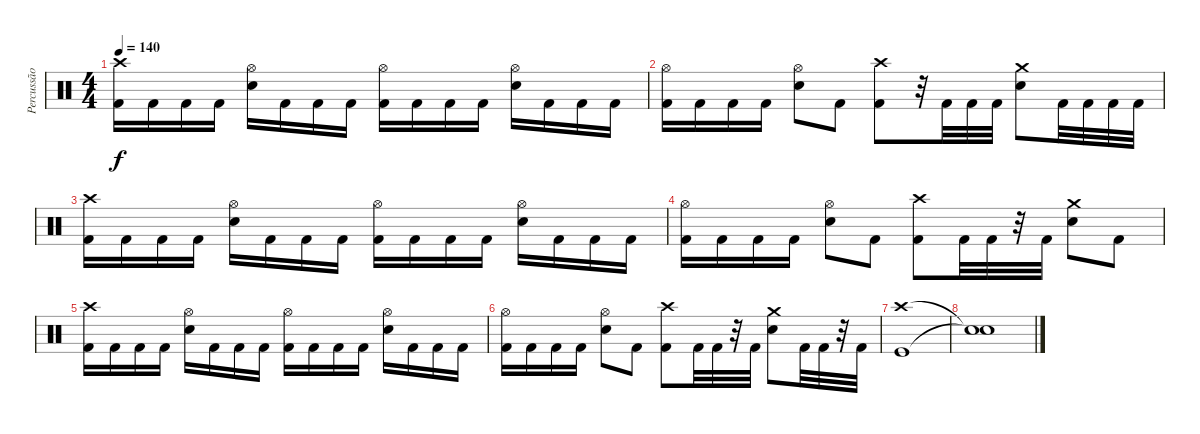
\track ("Percussão" "Percussão") {instrument percussion}
\staff {score}
\articulation defaults
\ts (4 4)
\tempo 140
\clef neutral
\ks c
("Crash high (hit)" "Kick (hit) 2").16{dy f} "Kick (hit) 2".16 "Kick (hit) 2".16 "Kick (hit) 2".16 ("Hi-Hat (open)" "Electric Snare (hit)").16 "Kick (hit) 2".16 "Kick (hit) 2".16 "Kick (hit) 2".16 ("Hi-Hat (open)" "Kick (hit) 2").16 "Kick (hit) 2".16 "Kick (hit) 2".16 "Kick (hit) 2".16 ("Hi-Hat (open)" "Electric Snare (hit)").16 "Kick (hit) 2".16 "Kick (hit) 2".16 "Kick (hit) 2".16 |
("Hi-Hat (open)" "Kick (hit) 2").16 "Kick (hit) 2".16 "Kick (hit) 2".16 "Kick (hit) 2".16 ("Hi-Hat (open)" "Electric Snare (hit)").8 "Kick (hit) 2".8 ("Crash high (hit)" "Kick (hit) 2").8 r.32 "Kick (hit) 2".32 "Kick (hit) 2".32 "Kick (hit) 2".32 ("Crash medium (hit)" "Electric Snare (hit)").8 "Kick (hit) 2".32 "Kick (hit) 2".32 "Kick (hit) 2".32 "Kick (hit) 2".32 |
("Crash high (hit)" "Kick (hit) 2").16 "Kick (hit) 2".16 "Kick (hit) 2".16 "Kick (hit) 2".16 ("Hi-Hat (open)" "Electric Snare (hit)").16 "Kick (hit) 2".16 "Kick (hit) 2".16 "Kick (hit) 2".16 ("Hi-Hat (open)" "Kick (hit) 2").16 "Kick (hit) 2".16 "Kick (hit) 2".16 "Kick (hit) 2".16 ("Hi-Hat (open)" "Electric Snare (hit)").16 "Kick (hit) 2".16 "Kick (hit) 2".16 "Kick (hit) 2".16 |
("Hi-Hat (open)" "Kick (hit) 2").16 "Kick (hit) 2".16 "Kick (hit) 2".16 "Kick (hit) 2".16 ("Hi-Hat (open)" "Electric Snare (hit)").8 "Kick (hit) 2".8 ("Crash high (hit)" "Kick (hit) 2").8 "Kick (hit) 2".32 "Kick (hit) 2".32 r.32 "Kick (hit) 2".32 ("Crash medium (hit)" "Electric Snare (hit)").8 "Kick (hit) 2".8 |
("Crash high (hit)" "Kick (hit) 2").16 "Kick (hit) 2".16 "Kick (hit) 2".16 "Kick (hit) 2".16 ("Hi-Hat (open)" "Electric Snare (hit)").16 "Kick (hit) 2".16 "Kick (hit) 2".16 "Kick (hit) 2".16 ("Hi-Hat (open)" "Kick (hit) 2").16 "Kick (hit) 2".16 "Kick (hit) 2".16 "Kick (hit) 2".16 ("Hi-Hat (open)" "Electric Snare (hit)").16 "Kick (hit) 2".16 "Kick (hit) 2".16 "Kick (hit) 2".16 |
("Hi-Hat (open)" "Kick (hit) 2").16 "Kick (hit) 2".16 "Kick (hit) 2".16 "Kick (hit) 2".16 ("Hi-Hat (open)" "Electric Snare (hit)").8 "Kick (hit) 2".8 ("Crash high (hit)" "Kick (hit) 2").8 "Kick (hit) 2".32 "Kick (hit) 2".32 r.32 "Kick (hit) 2".32 ("Crash medium (hit)" "Electric Snare (hit)").8 "Kick (hit) 2".32 "Kick (hit) 2".32 r.32 "Kick (hit) 2".32 |
("Crash high (hit)" "Kick (hit)").1 |
("Snare (hit)"{t} "Snare (hit)"{t}).1
